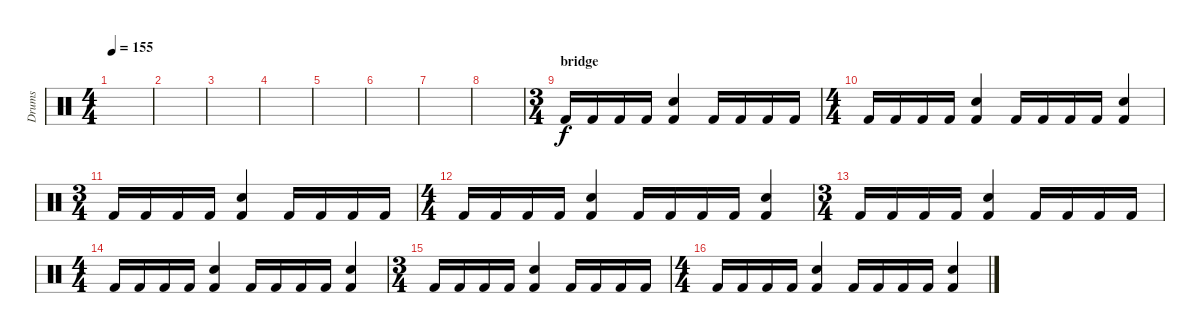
\track ("Drums" "Drums") {instrument percussion}
\staff {score}
\articulation defaults
\ts (4 4)
\tempo 155
\clef neutral
\ks c
|
|
|
|
|
|
|
|
\ts (3 4)
\section ("" "bridge")
"Kick (hit) 2".16 "Kick (hit) 2".16 "Kick (hit) 2".16 "Kick (hit) 2".16 ("Kick (hit) 2" "Snare (hit) 2").4 "Kick (hit) 2".16 "Kick (hit) 2".16 "Kick (hit) 2".16 "Kick (hit) 2".16 |
\ts (4 4)
"Kick (hit) 2".16 "Kick (hit) 2".16 "Kick (hit) 2".16 "Kick (hit) 2".16 ("Snare (hit) 2" "Kick (hit) 2").4 "Kick (hit) 2".16 "Kick (hit) 2".16 "Kick (hit) 2".16 "Kick (hit) 2".16 ("Snare (hit) 2" "Kick (hit) 2").4 |
\ts (3 4)
"Kick (hit) 2".16 "Kick (hit) 2".16 "Kick (hit) 2".16 "Kick (hit) 2".16 ("Kick (hit) 2" "Snare (hit) 2").4 "Kick (hit) 2".16 "Kick (hit) 2".16 "Kick (hit) 2".16 "Kick (hit) 2".16 |
\ts (4 4)
"Kick (hit) 2".16 "Kick (hit) 2".16 "Kick (hit) 2".16 "Kick (hit) 2".16 ("Snare (hit) 2" "Kick (hit) 2").4 "Kick (hit) 2".16 "Kick (hit) 2".16 "Kick (hit) 2".16 "Kick (hit) 2".16 ("Snare (hit) 2" "Kick (hit) 2").4 |
\ts (3 4)
"Kick (hit) 2".16 "Kick (hit) 2".16 "Kick (hit) 2".16 "Kick (hit) 2".16 ("Kick (hit) 2" "Snare (hit) 2").4 "Kick (hit) 2".16 "Kick (hit) 2".16 "Kick (hit) 2".16 "Kick (hit) 2".16 |
\ts (4 4)
"Kick (hit) 2".16 "Kick (hit) 2".16 "Kick (hit) 2".16 "Kick (hit) 2".16 ("Snare (hit) 2" "Kick (hit) 2").4 "Kick (hit) 2".16 "Kick (hit) 2".16 "Kick (hit) 2".16 "Kick (hit) 2".16 ("Snare (hit) 2" "Kick (hit) 2").4 |
\ts (3 4)
"Kick (hit) 2".16 "Kick (hit) 2".16 "Kick (hit) 2".16 "Kick (hit) 2".16 ("Kick (hit) 2" "Snare (hit) 2").4 "Kick (hit) 2".16 "Kick (hit) 2".16 "Kick (hit) 2".16 "Kick (hit) 2".16 |
\ts (4 4)
"Kick (hit) 2".16 "Kick (hit) 2".16 "Kick (hit) 2".16 "Kick (hit) 2".16 ("Snare (hit) 2" "Kick (hit) 2").4 "Kick (hit) 2".16 "Kick (hit) 2".16 "Kick (hit) 2".16 "Kick (hit) 2".16 ("Snare (hit) 2" "Kick (hit) 2").4
